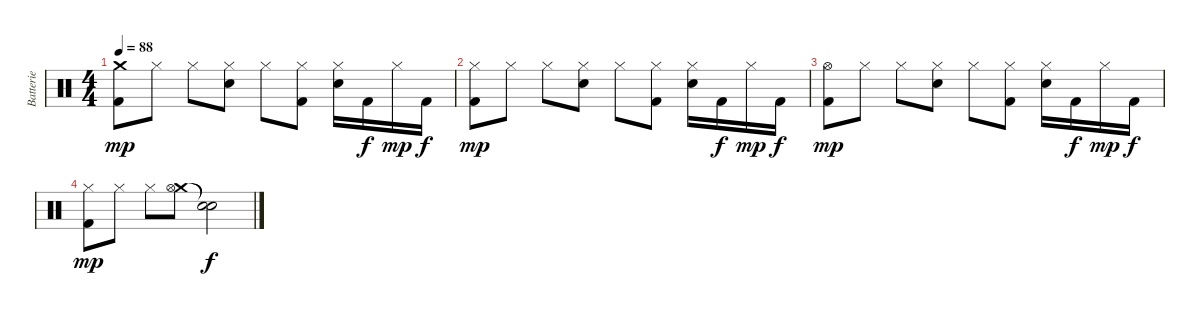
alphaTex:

\track ("Batterie" "Batterie") {instrument percussion}
\staff {score}
\articulation defaults
\ts (4 4)
\tempo 88
\clef neutral
\ks c
("Crash medium (hit)" "Kick (hit) 2").8{dy mp} "Hi-Hat (closed)".8 "Hi-Hat (closed)".8 ("Hi-Hat (closed)" "Electric Snare (hit)").8 "Hi-Hat (closed)".8 ("Hi-Hat (closed)" "Kick (hit) 2").8 ("Hi-Hat (closed)" "Electric Snare (hit)").16 "Kick (hit) 2".16{dy f} "Hi-Hat (closed)".16{dy mp} "Kick (hit) 2".16{dy f} |
("Hi-Hat (closed)" "Kick (hit) 2").8{dy mp} "Hi-Hat (closed)".8 "Hi-Hat (closed)".8 ("Hi-Hat (closed)" "Electric Snare (hit)").8 "Hi-Hat (closed)".8 ("Hi-Hat (closed)" "Kick (hit) 2").8 ("Hi-Hat (closed)" "Electric Snare (hit)").16 "Kick (hit) 2".16{dy f} "Hi-Hat (closed)".16{dy mp} "Kick (hit) 2".16{dy f} |
("Hi-Hat (open)" "Kick (hit) 2").8{dy mp} "Hi-Hat (closed)".8 "Hi-Hat (closed)".8 ("Hi-Hat (closed)" "Electric Snare (hit)").8 "Hi-Hat (closed)".8 ("Hi-Hat (closed)" "Kick (hit) 2").8 ("Hi-Hat (closed)" "Electric Snare (hit)").16 "Kick (hit) 2".16{dy f} "Hi-Hat (closed)".16{dy mp} "Kick (hit) 2".16{dy f} |
("Hi-Hat (closed)" "Kick (hit) 2").8{dy mp} "Hi-Hat (closed)".8 "Hi-Hat (closed)".8 ("Crash medium (hit)" "Hi-Hat (open)").8 ("Snare (hit)"{t} "Snare (hit)"{t}).2{dy f}
